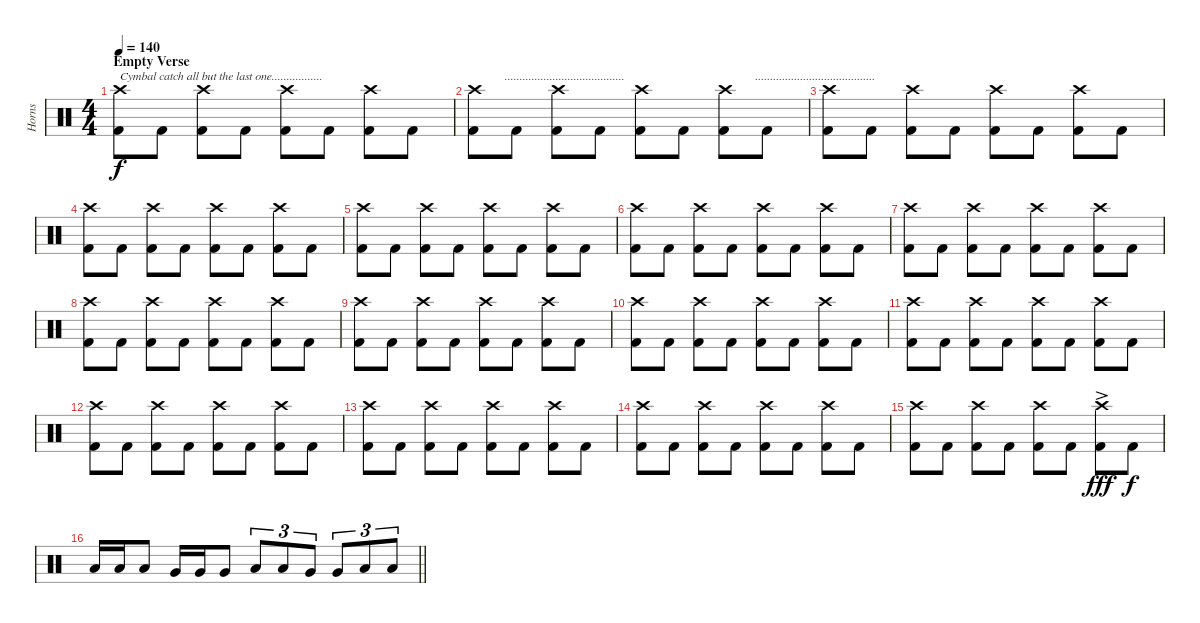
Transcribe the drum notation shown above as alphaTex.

\track ("Horns" "Horns") {instrument percussion}
\staff {score}
\articulation defaults
\ts (4 4)
\section ("" "Empty Verse")
\tempo 140
\clef neutral
\ks c
("Crash high (hit)" "Kick (hit) 2").8{txt "Cymbal catch all but the last one................." dy f} "Kick (hit) 2".8 ("Crash high (hit)" "Kick (hit) 2").8 "Kick (hit) 2".8 ("Crash high (hit)" "Kick (hit) 2").8 "Kick (hit) 2".8 ("Crash high (hit)" "Kick (hit) 2").8 "Kick (hit) 2".8 |
("Crash high (hit)" "Kick (hit) 2").8{txt "          ........................................"} "Kick (hit) 2".8 ("Crash high (hit)" "Kick (hit) 2").8 "Kick (hit) 2".8 ("Crash high (hit)" "Kick (hit) 2").8 "Kick (hit) 2".8 ("Crash high (hit)" "Kick (hit) 2").8{txt "          ........................................"} "Kick (hit) 2".8 |
("Crash high (hit)" "Kick (hit) 2").8 "Kick (hit) 2".8 ("Crash high (hit)" "Kick (hit) 2").8 "Kick (hit) 2".8 ("Crash high (hit)" "Kick (hit) 2").8 "Kick (hit) 2".8 ("Crash high (hit)" "Kick (hit) 2").8 "Kick (hit) 2".8 |
("Crash high (hit)" "Kick (hit) 2").8 "Kick (hit) 2".8 ("Crash high (hit)" "Kick (hit) 2").8 "Kick (hit) 2".8 ("Crash high (hit)" "Kick (hit) 2").8 "Kick (hit) 2".8 ("Crash high (hit)" "Kick (hit) 2").8 "Kick (hit) 2".8 |
("Crash high (hit)" "Kick (hit) 2").8 "Kick (hit) 2".8 ("Crash high (hit)" "Kick (hit) 2").8 "Kick (hit) 2".8 ("Crash high (hit)" "Kick (hit) 2").8 "Kick (hit) 2".8 ("Crash high (hit)" "Kick (hit) 2").8 "Kick (hit) 2".8 |
("Crash high (hit)" "Kick (hit) 2").8 "Kick (hit) 2".8 ("Crash high (hit)" "Kick (hit) 2").8 "Kick (hit) 2".8 ("Crash high (hit)" "Kick (hit) 2").8 "Kick (hit) 2".8 ("Crash high (hit)" "Kick (hit) 2").8 "Kick (hit) 2".8 |
("Crash high (hit)" "Kick (hit) 2").8 "Kick (hit) 2".8 ("Crash high (hit)" "Kick (hit) 2").8 "Kick (hit) 2".8 ("Crash high (hit)" "Kick (hit) 2").8 "Kick (hit) 2".8 ("Crash high (hit)" "Kick (hit) 2").8 "Kick (hit) 2".8 |
("Crash high (hit)" "Kick (hit) 2").8 "Kick (hit) 2".8 ("Crash high (hit)" "Kick (hit) 2").8 "Kick (hit) 2".8 ("Crash high (hit)" "Kick (hit) 2").8 "Kick (hit) 2".8 ("Crash high (hit)" "Kick (hit) 2").8 "Kick (hit) 2".8 |
("Crash high (hit)" "Kick (hit) 2").8 "Kick (hit) 2".8 ("Crash high (hit)" "Kick (hit) 2").8 "Kick (hit) 2".8 ("Crash high (hit)" "Kick (hit) 2").8 "Kick (hit) 2".8 ("Crash high (hit)" "Kick (hit) 2").8 "Kick (hit) 2".8 |
("Crash high (hit)" "Kick (hit) 2").8 "Kick (hit) 2".8 ("Crash high (hit)" "Kick (hit) 2").8 "Kick (hit) 2".8 ("Crash high (hit)" "Kick (hit) 2").8 "Kick (hit) 2".8 ("Crash high (hit)" "Kick (hit) 2").8 "Kick (hit) 2".8 |
("Crash high (hit)" "Kick (hit) 2").8 "Kick (hit) 2".8 ("Crash high (hit)" "Kick (hit) 2").8 "Kick (hit) 2".8 ("Crash high (hit)" "Kick (hit) 2").8 "Kick (hit) 2".8 ("Crash high (hit)" "Kick (hit) 2").8 "Kick (hit) 2".8 |
("Crash high (hit)" "Kick (hit) 2").8 "Kick (hit) 2".8 ("Crash high (hit)" "Kick (hit) 2").8 "Kick (hit) 2".8 ("Crash high (hit)" "Kick (hit) 2").8 "Kick (hit) 2".8 ("Crash high (hit)" "Kick (hit) 2").8 "Kick (hit) 2".8 |
("Crash high (hit)" "Kick (hit) 2").8 "Kick (hit) 2".8 ("Crash high (hit)" "Kick (hit) 2").8 "Kick (hit) 2".8 ("Crash high (hit)" "Kick (hit) 2").8 "Kick (hit) 2".8 ("Crash high (hit)" "Kick (hit) 2").8 "Kick (hit) 2".8 |
("Crash high (hit)" "Kick (hit) 2").8 "Kick (hit) 2".8 ("Crash high (hit)" "Kick (hit) 2").8 "Kick (hit) 2".8 ("Crash high (hit)" "Kick (hit) 2").8 "Kick (hit) 2".8 ("Crash high (hit)" "Kick (hit) 2").8 "Kick (hit) 2".8 |
("Crash high (hit)" "Kick (hit) 2").8 "Kick (hit) 2".8 ("Crash high (hit)" "Kick (hit) 2").8 "Kick (hit) 2".8 ("Crash high (hit)" "Kick (hit) 2").8 "Kick (hit) 2".8 ("Crash high (hit)"{ac} "Kick (hit) 2").8{dy fff} "Kick (hit) 2".8{dy f} |
\barLineRight lightlight "Low Tom (hit)".16 "Low Tom (hit)".16 "Low Tom (hit)".8 "Very Low Tom (hit)".16 "Very Low Tom (hit)".16 "Very Low Tom (hit)".8 "Low Tom (hit)".8{tu (3 2)} "Low Tom (hit)".8{tu (3 2)} "Very Low Tom (hit)".8{tu (3 2)} "Very Low Tom (hit)".8{tu (3 2)} "Low Floor Tom (hit)".8{tu (3 2)} "Low Floor Tom (hit)".8{tu (3 2)}
